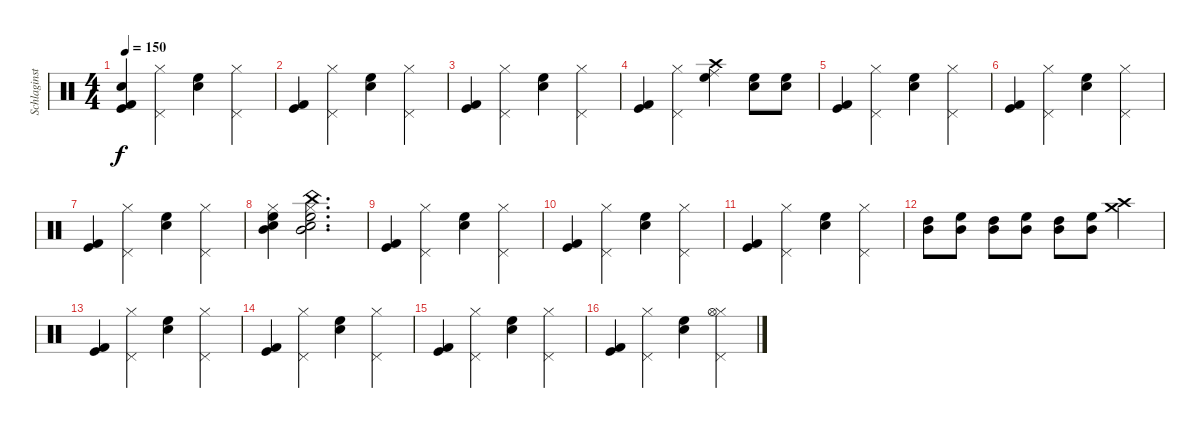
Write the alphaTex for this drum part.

\track ("Schlaginstrumente - Auswahl" "Schlaginst") {instrument percussion}
\staff {score}
\articulation defaults
\ts (4 4)
\tempo 150
\clef neutral
\ks c
("Kick (hit) 2" "Kick (hit)" "Snare (hit)"{t}).4{dy f} ("Pedal Hi-Hat (hit)" "Hi-Hat (closed)").4 ("High Floor Tom (hit)" "Snare (hit) 2").4 ("Pedal Hi-Hat (hit)" "Hi-Hat (closed)").4 |
("Kick (hit) 2" "Kick (hit)").4 ("Pedal Hi-Hat (hit)" "Hi-Hat (closed)").4 ("High Floor Tom (hit)" "Snare (hit) 2").4 ("Pedal Hi-Hat (hit)" "Hi-Hat (closed)").4 |
("Kick (hit) 2" "Kick (hit)").4 ("Pedal Hi-Hat (hit)" "Hi-Hat (closed)").4 ("High Floor Tom (hit)" "Snare (hit) 2").4 ("Pedal Hi-Hat (hit)" "Hi-Hat (closed)").4 |
("Kick (hit) 2" "Kick (hit)").4 ("Pedal Hi-Hat (hit)" "Hi-Hat (closed)").4 ("High Floor Tom (hit)" "Ride (middle)" "Crash high (hit)").4 ("Snare (hit) 2" "High Floor Tom (hit)").8 ("Snare (hit) 2" "High Floor Tom (hit)").8 |
("Kick (hit) 2" "Kick (hit)").4 ("Pedal Hi-Hat (hit)" "Hi-Hat (closed)").4 ("High Floor Tom (hit)" "Snare (hit) 2").4 ("Pedal Hi-Hat (hit)" "Hi-Hat (closed)").4 |
("Kick (hit) 2" "Kick (hit)").4 ("Pedal Hi-Hat (hit)" "Hi-Hat (closed)").4 ("High Floor Tom (hit)" "Snare (hit) 2").4 ("Pedal Hi-Hat (hit)" "Hi-Hat (closed)").4 |
("Kick (hit) 2" "Kick (hit)").4 ("Pedal Hi-Hat (hit)" "Hi-Hat (closed)").4 ("High Floor Tom (hit)" "Snare (hit) 2").4 ("Pedal Hi-Hat (hit)" "Hi-Hat (closed)").4 |
("High Floor Tom (hit)" "Snare (hit) 2" "Hi-Hat (closed)" "Mid Tom (hit)").4 ("High Floor Tom (hit)" "Snare (hit) 2" "Hi-Hat (closed)" "Mid Tom (hit)" "China (hit)").2{d} |
("Kick (hit) 2" "Kick (hit)").4 ("Pedal Hi-Hat (hit)" "Hi-Hat (closed)").4 ("High Floor Tom (hit)" "Snare (hit) 2").4 ("Pedal Hi-Hat (hit)" "Hi-Hat (closed)").4 |
("Kick (hit) 2" "Kick (hit)").4 ("Pedal Hi-Hat (hit)" "Hi-Hat (closed)").4 ("High Floor Tom (hit)" "Snare (hit) 2").4 ("Pedal Hi-Hat (hit)" "Hi-Hat (closed)").4 |
("Kick (hit) 2" "Kick (hit)").4 ("Pedal Hi-Hat (hit)" "Hi-Hat (closed)").4 ("High Floor Tom (hit)" "Snare (hit) 2").4 ("Pedal Hi-Hat (hit)" "Hi-Hat (closed)").4 |
("High Tom (hit)" "Mid Tom (hit)").8 ("High Floor Tom (hit)" "Mid Tom (hit)").8 ("High Tom (hit)" "Mid Tom (hit)").8 ("High Floor Tom (hit)" "Mid Tom (hit)").8 ("High Tom (hit)" "Mid Tom (hit)").8 ("High Floor Tom (hit)" "Mid Tom (hit)").8 ("Crash medium (hit)" "Crash high (hit)").4 |
("Kick (hit) 2" "Kick (hit)").4 ("Pedal Hi-Hat (hit)" "Hi-Hat (closed)").4 ("High Floor Tom (hit)" "Snare (hit) 2").4 ("Pedal Hi-Hat (hit)" "Hi-Hat (closed)").4 |
("Kick (hit) 2" "Kick (hit)").4 ("Pedal Hi-Hat (hit)" "Hi-Hat (closed)").4 ("High Floor Tom (hit)" "Snare (hit) 2").4 ("Pedal Hi-Hat (hit)" "Hi-Hat (closed)").4 |
("Kick (hit) 2" "Kick (hit)").4 ("Pedal Hi-Hat (hit)" "Hi-Hat (closed)").4 ("High Floor Tom (hit)" "Snare (hit) 2").4 ("Pedal Hi-Hat (hit)" "Hi-Hat (closed)").4 |
("Kick (hit) 2" "Kick (hit)").4 ("Pedal Hi-Hat (hit)" "Hi-Hat (closed)").4 ("High Floor Tom (hit)" "Snare (hit) 2").4 ("Pedal Hi-Hat (hit)" "Hi-Hat (closed)" "Hi-Hat (open)").4
